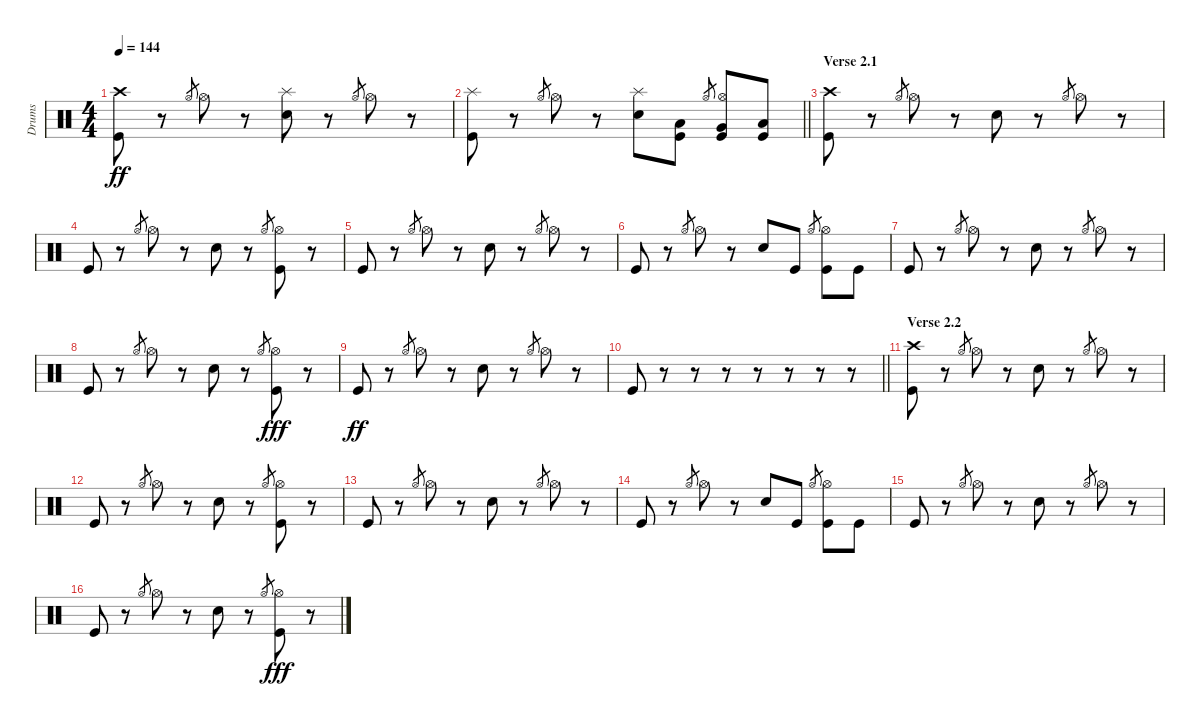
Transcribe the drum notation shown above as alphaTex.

\track ("Drums" "Drums") {instrument percussion}
\staff {score}
\articulation defaults
\ts (4 4)
\tempo 144
\clef neutral
\ks c
("Crash high (hit)" "Kick (hit)").8{dy ff} r.8 "Hi-Hat (open)".8{gr} "Hi-Hat (open)".8 r.8 ("Splash (hit)" "Snare (hit) 2").8 r.8 "Hi-Hat (open)".8{gr} "Hi-Hat (open)".8 r.8 |
\barLineRight lightlight
("Splash (hit)" "Kick (hit)").8 r.8 "Hi-Hat (open)".8{gr} "Hi-Hat (open)".8 r.8 ("Splash (hit)" "Snare (hit) 2").8 ("Low Tom (hit)" "Kick (hit)").8 "Hi-Hat (open)".8{gr} ("Hi-Hat (open)" "Very Low Tom (hit)" "Kick (hit)").8 ("Low Floor Tom (hit)" "Kick (hit)").8 |
\section ("" "Verse 2.1")
("Crash high (hit)" "Kick (hit)").8 r.8 "Hi-Hat (open)".8{gr} "Hi-Hat (open)".8 r.8 "Snare (hit) 2".8 r.8 "Hi-Hat (open)".8{gr} "Hi-Hat (open)".8 r.8 |
"Kick (hit)".8 r.8 "Hi-Hat (open)".8{gr} "Hi-Hat (open)".8 r.8 "Snare (hit) 2".8 r.8 "Hi-Hat (open)".8{gr} ("Hi-Hat (open)" "Kick (hit)").8 r.8 |
"Kick (hit)".8 r.8 "Hi-Hat (open)".8{gr} "Hi-Hat (open)".8 r.8 "Snare (hit) 2".8 r.8 "Hi-Hat (open)".8{gr} "Hi-Hat (open)".8 r.8 |
"Kick (hit)".8 r.8 "Hi-Hat (open)".8{gr} "Hi-Hat (open)".8 r.8 "Snare (hit) 2".8 "Kick (hit)".8 "Hi-Hat (open)".8{gr} ("Hi-Hat (open)" "Kick (hit)").8 "Kick (hit)".8 |
"Kick (hit)".8 r.8 "Hi-Hat (open)".8{gr} "Hi-Hat (open)".8 r.8 "Snare (hit) 2".8 r.8 "Hi-Hat (open)".8{gr} "Hi-Hat (open)".8 r.8 |
"Kick (hit)".8 r.8 "Hi-Hat (open)".8{gr} "Hi-Hat (open)".8 r.8 "Snare (hit) 2".8 r.8 "Hi-Hat (open)".8{gr} ("Hi-Hat (open)" "Kick (hit)").8{dy fff} r.8 |
"Kick (hit)".8{dy ff} r.8 "Hi-Hat (open)".8{gr} "Hi-Hat (open)".8 r.8 "Snare (hit) 2".8 r.8 "Hi-Hat (open)".8{gr} "Hi-Hat (open)".8 r.8 |
\barLineRight lightlight "Kick (hit)".8
r.8 r.8 r.8 r.8 r.8 r.8 r.8 |
\section ("" "Verse 2.2")
("Crash high (hit)" "Kick (hit)").8 r.8 "Hi-Hat (open)".8{gr} "Hi-Hat (open)".8 r.8 "Snare (hit) 2".8 r.8 "Hi-Hat (open)".8{gr} "Hi-Hat (open)".8 r.8 |
"Kick (hit)".8 r.8 "Hi-Hat (open)".8{gr} "Hi-Hat (open)".8 r.8 "Snare (hit) 2".8 r.8 "Hi-Hat (open)".8{gr} ("Hi-Hat (open)" "Kick (hit)").8 r.8 |
"Kick (hit)".8 r.8 "Hi-Hat (open)".8{gr} "Hi-Hat (open)".8 r.8 "Snare (hit) 2".8 r.8 "Hi-Hat (open)".8{gr} "Hi-Hat (open)".8 r.8 |
"Kick (hit)".8 r.8 "Hi-Hat (open)".8{gr} "Hi-Hat (open)".8 r.8 "Snare (hit) 2".8 "Kick (hit)".8 "Hi-Hat (open)".8{gr} ("Hi-Hat (open)" "Kick (hit)").8 "Kick (hit)".8 |
"Kick (hit)".8 r.8 "Hi-Hat (open)".8{gr} "Hi-Hat (open)".8 r.8 "Snare (hit) 2".8 r.8 "Hi-Hat (open)".8{gr} "Hi-Hat (open)".8 r.8 |
"Kick (hit)".8 r.8 "Hi-Hat (open)".8{gr} "Hi-Hat (open)".8 r.8 "Snare (hit) 2".8 r.8 "Hi-Hat (open)".8{gr} ("Hi-Hat (open)" "Kick (hit)").8{dy fff} r.8
